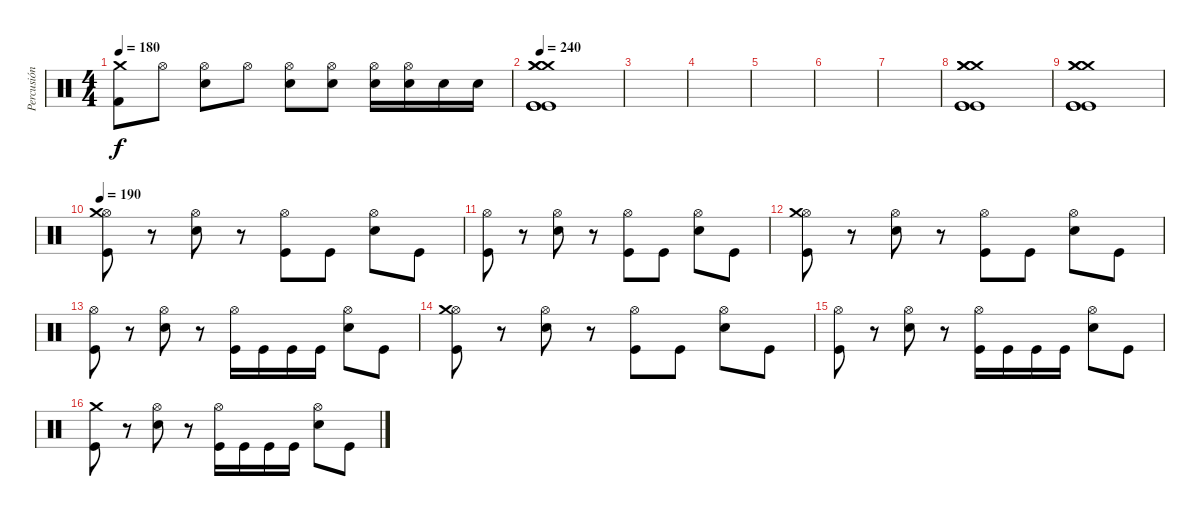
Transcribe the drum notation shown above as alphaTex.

\track ("Percusión" "Percusión") {instrument percussion}
\staff {score}
\articulation defaults
\ts (4 4)
\tempo 180
\clef neutral
\ks c
("Crash medium (hit)" "Kick (hit) 2").8{dy f} "Hi-Hat (open)".8 ("Hi-Hat (open)" "Snare (hit) 2").8 "Hi-Hat (open)".8 ("Hi-Hat (open)" "Snare (hit) 2").8 ("Hi-Hat (open)" "Snare (hit) 2").8 ("Hi-Hat (open)" "Snare (hit) 2").16 ("Hi-Hat (open)" "Snare (hit) 2").16 "Snare (hit) 2".16 "Snare (hit) 2".16 |
\tempo 240
("Crash medium (hit)" "Crash medium (hit)" "Crash medium (hit)" "Kick (hit)" "Kick (hit)" "Kick (hit)").1 |
|
|
|
|
|
("Crash medium (hit)" "Crash medium (hit)" "Crash medium (hit)" "Kick (hit)" "Kick (hit)" "Kick (hit)").1 |
("Crash medium (hit)" "Crash medium (hit)" "Crash medium (hit)" "Kick (hit)" "Kick (hit)" "Kick (hit)").1 |
\tempo 190
("Hi-Hat (open)" "Crash medium (hit)" "Kick (hit)").8 r.8 ("Hi-Hat (open)" "Snare (hit) 2").8 r.8 ("Hi-Hat (open)" "Kick (hit)").8 "Kick (hit)".8 ("Hi-Hat (open)" "Snare (hit) 2").8 "Kick (hit)".8 |
("Hi-Hat (open)" "Kick (hit)").8 r.8 ("Hi-Hat (open)" "Snare (hit) 2").8 r.8 ("Hi-Hat (open)" "Kick (hit)").8 "Kick (hit)".8 ("Hi-Hat (open)" "Snare (hit) 2").8 "Kick (hit)".8 |
("Hi-Hat (open)" "Crash medium (hit)" "Kick (hit)").8 r.8 ("Hi-Hat (open)" "Snare (hit) 2").8 r.8 ("Hi-Hat (open)" "Kick (hit)").8 "Kick (hit)".8 ("Hi-Hat (open)" "Snare (hit) 2").8 "Kick (hit)".8 |
("Hi-Hat (open)" "Kick (hit)").8 r.8 ("Hi-Hat (open)" "Snare (hit) 2").8 r.8 ("Hi-Hat (open)" "Kick (hit)").16 "Kick (hit)".16 "Kick (hit)".16 "Kick (hit)".16 ("Hi-Hat (open)" "Snare (hit) 2").8 "Kick (hit)".8 |
("Hi-Hat (open)" "Crash medium (hit)" "Kick (hit)").8 r.8 ("Hi-Hat (open)" "Snare (hit) 2").8 r.8 ("Hi-Hat (open)" "Kick (hit)").8 "Kick (hit)".8 ("Hi-Hat (open)" "Snare (hit) 2").8 "Kick (hit)".8 |
("Hi-Hat (open)" "Kick (hit)").8 r.8 ("Hi-Hat (open)" "Snare (hit) 2").8 r.8 ("Hi-Hat (open)" "Kick (hit)").16 "Kick (hit)".16 "Kick (hit)".16 "Kick (hit)".16 ("Hi-Hat (open)" "Snare (hit) 2").8 "Kick (hit)".8 |
("Crash medium (hit)" "Kick (hit)").8 r.8 ("Hi-Hat (open)" "Snare (hit) 2").8 r.8 ("Hi-Hat (open)" "Kick (hit)").16 "Kick (hit)".16 "Kick (hit)".16 "Kick (hit)".16 ("Hi-Hat (open)" "Snare (hit) 2").8 "Kick (hit)".8
